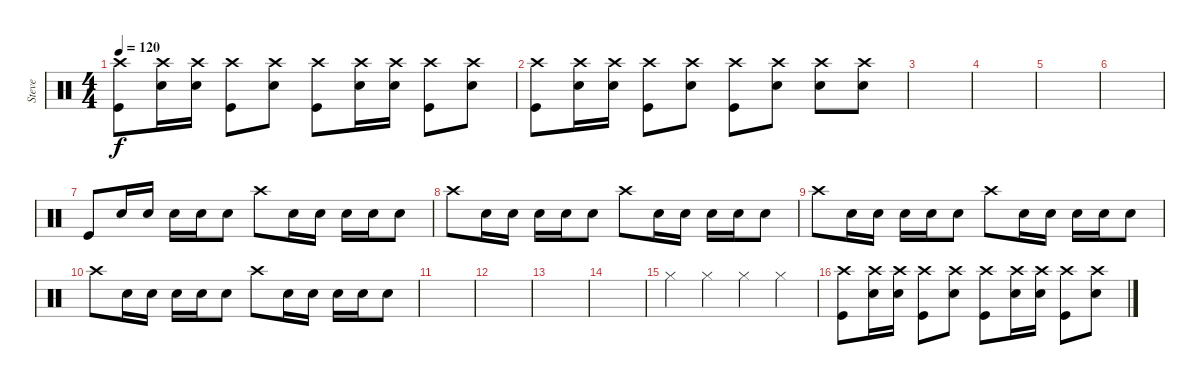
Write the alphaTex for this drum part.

\track ("Steve" "Steve") {instrument percussion}
\staff {score}
\articulation defaults
\ts (4 4)
\tempo 120
\clef neutral
\ks c
("Crash high (hit)" "Kick (hit)").8{dy f} ("Crash high (hit)" "Snare (hit) 2").16 ("Crash high (hit)" "Snare (hit) 2").16 ("Crash high (hit)" "Kick (hit)").8 ("Crash high (hit)" "Snare (hit) 2").8 ("Crash high (hit)" "Kick (hit)").8 ("Crash high (hit)" "Snare (hit) 2").16 ("Crash high (hit)" "Snare (hit) 2").16 ("Crash high (hit)" "Kick (hit)").8 ("Crash high (hit)" "Snare (hit) 2").8 |
("Crash high (hit)" "Kick (hit)").8 ("Crash high (hit)" "Snare (hit) 2").16 ("Crash high (hit)" "Snare (hit) 2").16 ("Crash high (hit)" "Kick (hit)").8 ("Crash high (hit)" "Snare (hit) 2").8 ("Crash high (hit)" "Kick (hit)").8 ("Crash high (hit)" "Snare (hit) 2").8 ("Crash high (hit)" "Snare (hit) 2").8 ("Crash high (hit)" "Snare (hit) 2").8 |
|
|
|
|
"Kick (hit)".8 "Snare (hit) 2".16 "Snare (hit) 2".16 "Snare (hit) 2".16 "Snare (hit) 2".16 "Snare (hit) 2".8 "Crash high (hit)".8 "Snare (hit) 2".16 "Snare (hit) 2".16 "Snare (hit) 2".16 "Snare (hit) 2".16 "Snare (hit) 2".8 |
"Crash high (hit)".8 "Snare (hit) 2".16 "Snare (hit) 2".16 "Snare (hit) 2".16 "Snare (hit) 2".16 "Snare (hit) 2".8 "Crash high (hit)".8 "Snare (hit) 2".16 "Snare (hit) 2".16 "Snare (hit) 2".16 "Snare (hit) 2".16 "Snare (hit) 2".8 |
"Crash high (hit)".8 "Snare (hit) 2".16 "Snare (hit) 2".16 "Snare (hit) 2".16 "Snare (hit) 2".16 "Snare (hit) 2".8 "Crash high (hit)".8 "Snare (hit) 2".16 "Snare (hit) 2".16 "Snare (hit) 2".16 "Snare (hit) 2".16 "Snare (hit) 2".8 |
"Crash high (hit)".8 "Snare (hit) 2".16 "Snare (hit) 2".16 "Snare (hit) 2".16 "Snare (hit) 2".16 "Snare (hit) 2".8 "Crash high (hit)".8 "Snare (hit) 2".16 "Snare (hit) 2".16 "Snare (hit) 2".16 "Snare (hit) 2".16 "Snare (hit) 2".8 |
|
|
|
|
"Hi-Hat (closed)".4 "Hi-Hat (closed)".4 "Hi-Hat (closed)".4 "Hi-Hat (closed)".4 |
("Crash high (hit)" "Kick (hit)").8 ("Crash high (hit)" "Snare (hit) 2").16 ("Crash high (hit)" "Snare (hit) 2").16 ("Crash high (hit)" "Kick (hit)").8 ("Crash high (hit)" "Snare (hit) 2").8 ("Crash high (hit)" "Kick (hit)").8 ("Crash high (hit)" "Snare (hit) 2").16 ("Crash high (hit)" "Snare (hit) 2").16 ("Crash high (hit)" "Kick (hit)").8 ("Crash high (hit)" "Snare (hit) 2").8
